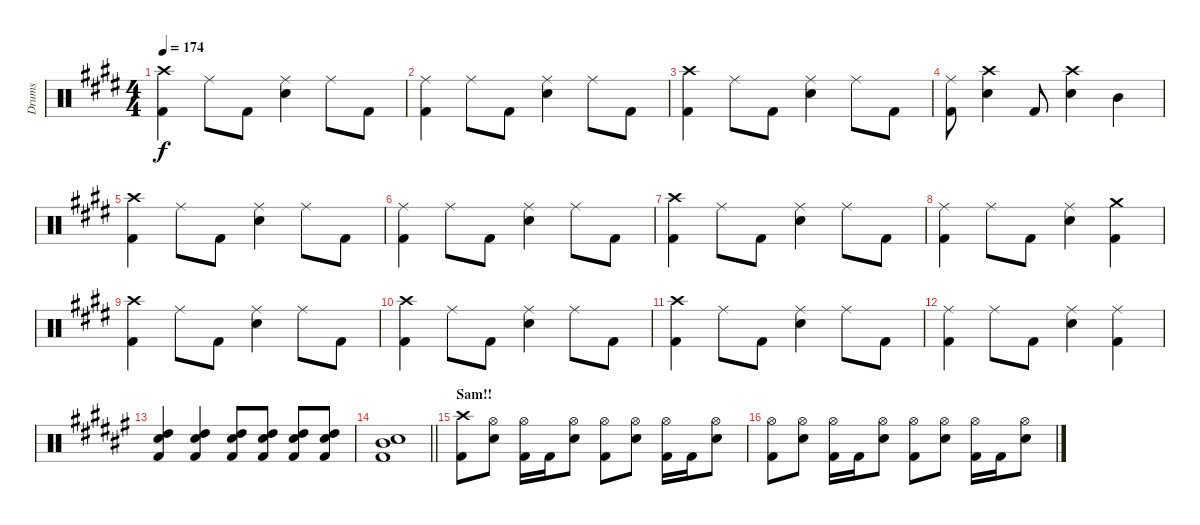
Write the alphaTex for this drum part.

\track ("Drums" "Drums") {instrument percussion}
\staff {score}
\articulation defaults
\ts (4 4)
\tempo 174
\clef neutral
\ks e
("Crash high (hit)" "Kick (hit) 2").4{dy f} "Ride (middle)".8 "Kick (hit) 2".8 ("Ride (middle)" "Snare (hit) 2").4 "Ride (middle)".8 "Kick (hit) 2".8 |
("Ride (middle)" "Kick (hit) 2").4 "Ride (middle)".8 "Kick (hit) 2".8 ("Ride (middle)" "Snare (hit) 2").4 "Ride (middle)".8 "Kick (hit) 2".8 |
("Crash high (hit)" "Kick (hit) 2").4 "Ride (middle)".8 "Kick (hit) 2".8 ("Ride (middle)" "Snare (hit) 2").4 "Ride (middle)".8 "Kick (hit) 2".8 |
("Ride (middle)" "Kick (hit) 2").8 ("Crash high (hit)" "Snare (hit) 2").4 "Kick (hit) 2".8 ("Crash high (hit)" "Snare (hit) 2").4 "Mid Tom (hit)".4 |
("Crash high (hit)" "Kick (hit) 2").4 "Ride (middle)".8 "Kick (hit) 2".8 ("Ride (middle)" "Snare (hit) 2").4 "Ride (middle)".8 "Kick (hit) 2".8 |
("Ride (middle)" "Kick (hit) 2").4 "Ride (middle)".8 "Kick (hit) 2".8 ("Ride (middle)" "Snare (hit) 2").4 "Ride (middle)".8 "Kick (hit) 2".8 |
("Crash high (hit)" "Kick (hit) 2").4 "Ride (middle)".8 "Kick (hit) 2".8 ("Ride (middle)" "Snare (hit) 2").4 "Ride (middle)".8 "Kick (hit) 2".8 |
("Ride (middle)" "Kick (hit) 2").4 "Ride (middle)".8 "Kick (hit) 2".8 ("Ride (middle)" "Snare (hit) 2").4 ("Crash medium (hit)" "Kick (hit) 2").4 |
("Crash high (hit)" "Kick (hit) 2").4 "Ride (middle)".8 "Kick (hit) 2".8 ("Ride (middle)" "Snare (hit) 2").4 "Ride (middle)".8 "Kick (hit) 2".8 |
("Crash high (hit)" "Kick (hit) 2").4 "Ride (middle)".8 "Kick (hit) 2".8 ("Ride (middle)" "Snare (hit) 2").4 "Ride (middle)".8 "Kick (hit) 2".8 |
("Crash high (hit)" "Kick (hit) 2").4 "Ride (middle)".8 "Kick (hit) 2".8 ("Ride (middle)" "Snare (hit) 2").4 "Ride (middle)".8 "Kick (hit) 2".8 |
("Ride (middle)" "Kick (hit) 2").4 "Ride (middle)".8 "Kick (hit) 2".8 ("Ride (middle)" "Snare (hit) 2").4 ("Ride (middle)" "Kick (hit) 2").4 |
\ks f#
("Snare (hit) 2" "High Tom (hit)" "Kick (hit) 2").4 ("Snare (hit) 2" "High Tom (hit)" "Kick (hit) 2").4 ("Snare (hit) 2" "High Tom (hit)" "Kick (hit) 2").8 ("Snare (hit) 2" "High Tom (hit)" "Kick (hit) 2").8 ("Snare (hit) 2" "High Tom (hit)" "Kick (hit) 2").8 ("Snare (hit) 2" "High Tom (hit)" "Kick (hit) 2").8 |
\barLineRight lightlight
("Snare (hit) 2" "Mid Tom (hit)" "Kick (hit) 2").1 |
\section ("" "Sam!!")
("Crash high (hit)" "Kick (hit) 2").8 ("Hi-Hat (open)" "Snare (hit) 2").8 ("Hi-Hat (open)" "Kick (hit) 2").16 "Kick (hit) 2".16 ("Hi-Hat (open)" "Snare (hit) 2").8 ("Hi-Hat (open)" "Kick (hit) 2").8 ("Hi-Hat (open)" "Snare (hit) 2").8 ("Hi-Hat (open)" "Kick (hit) 2").16 "Kick (hit) 2".16 ("Hi-Hat (open)" "Snare (hit) 2").8 |
("Hi-Hat (open)" "Kick (hit) 2").8 ("Hi-Hat (open)" "Snare (hit) 2").8 ("Hi-Hat (open)" "Kick (hit) 2").16 "Kick (hit) 2".16 ("Hi-Hat (open)" "Snare (hit) 2").8 ("Hi-Hat (open)" "Kick (hit) 2").8 ("Hi-Hat (open)" "Snare (hit) 2").8 ("Hi-Hat (open)" "Kick (hit) 2").16 "Kick (hit) 2".16 ("Hi-Hat (open)" "Snare (hit) 2").8
